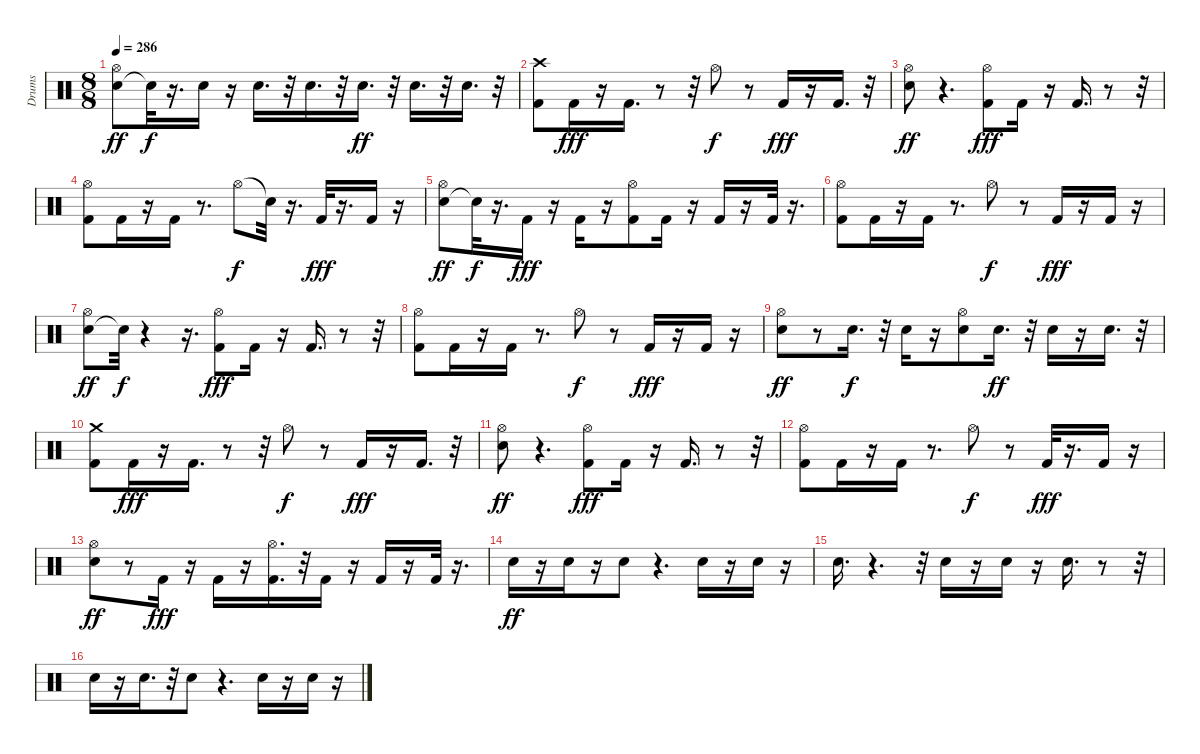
\track ("Drums" "Drums") {instrument percussion}
\staff {score}
\articulation defaults
\ts (8 8)
\tempo 286
\clef neutral
\ks c
("Snare (hit) 2" "Hi-Hat (open)").8{dy ff} "Snare (hit)"{t}.32{dy f} r.16{d} "Snare (hit) 2".16 r.16 "Snare (hit) 2".16{d} r.32 "Snare (hit) 2".16{d} r.32 "Snare (hit) 2".16{d dy ff} r.32 "Snare (hit) 2".16{d} r.32 "Snare (hit) 2".16{d} r.32 |
("Kick (hit) 2" "Crash high (hit)").8 "Kick (hit) 2".16{dy fff} r.16 "Kick (hit) 2".16{d} r.8 r.32 "Hi-Hat (open)".8{dy f} r.8 "Kick (hit) 2".16{dy fff} r.16 "Kick (hit) 2".16{d} r.32 |
("Snare (hit) 2" "Hi-Hat (open)").8{dy ff} r.4{d} ("Kick (hit) 2" "Hi-Hat (open)").8{dy fff} "Kick (hit) 2".16 r.16 "Kick (hit) 2".16{d} r.8 r.32 |
("Kick (hit) 2" "Hi-Hat (open)").8 "Kick (hit) 2".16 r.16 "Kick (hit) 2".16 r.8{d} "Hi-Hat (open)".8{dy f} "Snare (hit)"{t}.32 r.16{d} "Kick (hit) 2".32{dy fff} r.16{d} "Kick (hit) 2".16 r.16 |
("Snare (hit) 2" "Hi-Hat (open)").8{dy ff} "Snare (hit)"{t}.32{dy f} r.16{d} "Kick (hit) 2".16{dy fff} r.16 "Kick (hit) 2".16 r.16 ("Kick (hit) 2" "Hi-Hat (open)").8 "Kick (hit) 2".16 r.16 "Kick (hit) 2".16 r.16 "Kick (hit) 2".32 r.16{d} |
("Kick (hit) 2" "Hi-Hat (open)").8 "Kick (hit) 2".16 r.16 "Kick (hit) 2".16 r.8{d} "Hi-Hat (open)".8{dy f} r.8 "Kick (hit) 2".16{dy fff} r.16 "Kick (hit) 2".16 r.16 |
("Snare (hit) 2" "Hi-Hat (open)").8{dy ff} "Snare (hit)"{t}.32{dy f} r.4 r.16{d} ("Kick (hit) 2" "Hi-Hat (open)").8{dy fff} "Kick (hit) 2".16 r.16 "Kick (hit) 2".16{d} r.8 r.32 |
("Kick (hit) 2" "Hi-Hat (open)").8 "Kick (hit) 2".16 r.16 "Kick (hit) 2".16 r.8{d} "Hi-Hat (open)".8{dy f} r.8 "Kick (hit) 2".16{dy fff} r.16 "Kick (hit) 2".16 r.16 |
("Snare (hit) 2" "Hi-Hat (open)").8{dy ff} r.8 "Snare (hit) 2".16{d dy f} r.32 "Snare (hit) 2".16 r.16 ("Snare (hit) 2" "Hi-Hat (open)").8 "Snare (hit) 2".16{d dy ff} r.32 "Snare (hit) 2".16 r.16 "Snare (hit) 2".16{d} r.32 |
("Kick (hit) 2" "Crash medium (hit)").8 "Kick (hit) 2".16{dy fff} r.16 "Kick (hit) 2".16{d} r.8 r.32 "Hi-Hat (open)".8{dy f} r.8 "Kick (hit) 2".16{dy fff} r.16 "Kick (hit) 2".16{d} r.32 |
("Snare (hit) 2" "Hi-Hat (open)").8{dy ff} r.4{d} ("Kick (hit) 2" "Hi-Hat (open)").8{dy fff} "Kick (hit) 2".16 r.16 "Kick (hit) 2".16{d} r.8 r.32 |
("Kick (hit) 2" "Hi-Hat (open)").8 "Kick (hit) 2".16 r.16 "Kick (hit) 2".16 r.8{d} "Hi-Hat (open)".8{dy f} r.8 "Kick (hit) 2".32{dy fff} r.16{d} "Kick (hit) 2".16 r.16 |
("Snare (hit) 2" "Hi-Hat (open)").8{dy ff} r.8 "Kick (hit) 2".16{dy fff} r.16 "Kick (hit) 2".16 r.16 ("Kick (hit) 2" "Hi-Hat (open)").16{d} r.32 "Kick (hit) 2".16 r.16 "Kick (hit) 2".16 r.16 "Kick (hit) 2".32 r.16{d} |
"Snare (hit) 2".16{dy ff} r.16 "Snare (hit) 2".16 r.16 "Snare (hit) 2".8 r.4{d} "Snare (hit) 2".16 r.16 "Snare (hit) 2".16 r.16 |
"Snare (hit) 2".16{d} r.4{d} r.32 "Snare (hit) 2".16 r.16 "Snare (hit) 2".16 r.16 "Snare (hit) 2".16{d} r.8 r.32 |
"Snare (hit) 2".16 r.16 "Snare (hit) 2".16{d} r.32 "Snare (hit) 2".8 r.4{d} "Snare (hit) 2".16 r.16 "Snare (hit) 2".16 r.16
